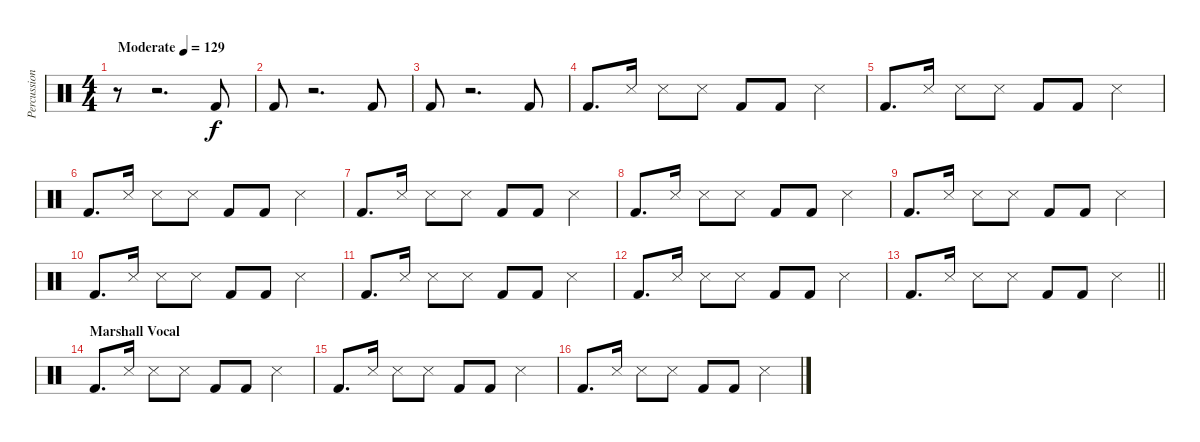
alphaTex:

\track ("Percussion (Joel)" "Percussion") {instrument percussion}
\staff {score}
\articulation defaults
\ts (4 4)
\tempo (129 "Moderate")
\clef neutral
\ks c
r.8{dy f} r.2{d} "Kick (hit) 2".8 |
"Kick (hit) 2".8 r.2{d} "Kick (hit) 2".8 |
"Kick (hit) 2".8 r.2{d} "Kick (hit) 2".8 |
"Kick (hit) 2".8{d} "Snare (side stick) 3".16 "Snare (side stick) 3".8 "Snare (side stick) 3".8 "Kick (hit) 2".8 "Kick (hit) 2".8 "Snare (side stick) 3".4 |
"Kick (hit) 2".8{d} "Snare (side stick) 3".16 "Snare (side stick) 3".8 "Snare (side stick) 3".8 "Kick (hit) 2".8 "Kick (hit) 2".8 "Snare (side stick) 3".4 |
"Kick (hit) 2".8{d} "Snare (side stick) 3".16 "Snare (side stick) 3".8 "Snare (side stick) 3".8 "Kick (hit) 2".8 "Kick (hit) 2".8 "Snare (side stick) 3".4 |
"Kick (hit) 2".8{d} "Snare (side stick) 3".16 "Snare (side stick) 3".8 "Snare (side stick) 3".8 "Kick (hit) 2".8 "Kick (hit) 2".8 "Snare (side stick) 3".4 |
"Kick (hit) 2".8{d} "Snare (side stick) 3".16 "Snare (side stick) 3".8 "Snare (side stick) 3".8 "Kick (hit) 2".8 "Kick (hit) 2".8 "Snare (side stick) 3".4 |
"Kick (hit) 2".8{d} "Snare (side stick) 3".16 "Snare (side stick) 3".8 "Snare (side stick) 3".8 "Kick (hit) 2".8 "Kick (hit) 2".8 "Snare (side stick) 3".4 |
"Kick (hit) 2".8{d} "Snare (side stick) 3".16 "Snare (side stick) 3".8 "Snare (side stick) 3".8 "Kick (hit) 2".8 "Kick (hit) 2".8 "Snare (side stick) 3".4 |
"Kick (hit) 2".8{d} "Snare (side stick) 3".16 "Snare (side stick) 3".8 "Snare (side stick) 3".8 "Kick (hit) 2".8 "Kick (hit) 2".8 "Snare (side stick) 3".4 |
"Kick (hit) 2".8{d} "Snare (side stick) 3".16 "Snare (side stick) 3".8 "Snare (side stick) 3".8 "Kick (hit) 2".8 "Kick (hit) 2".8 "Snare (side stick) 3".4 |
\barLineRight lightlight "Kick (hit) 2".8{d} "Snare (side stick) 3".16 "Snare (side stick) 3".8 "Snare (side stick) 3".8 "Kick (hit) 2".8 "Kick (hit) 2".8 "Snare (side stick) 3".4
|
\section ("" "Marshall Vocal")
"Kick (hit) 2".8{d} "Snare (side stick) 3".16 "Snare (side stick) 3".8 "Snare (side stick) 3".8 "Kick (hit) 2".8 "Kick (hit) 2".8 "Snare (side stick) 3".4 |
"Kick (hit) 2".8{d} "Snare (side stick) 3".16 "Snare (side stick) 3".8 "Snare (side stick) 3".8 "Kick (hit) 2".8 "Kick (hit) 2".8 "Snare (side stick) 3".4 |
"Kick (hit) 2".8{d} "Snare (side stick) 3".16 "Snare (side stick) 3".8 "Snare (side stick) 3".8 "Kick (hit) 2".8 "Kick (hit) 2".8 "Snare (side stick) 3".4
